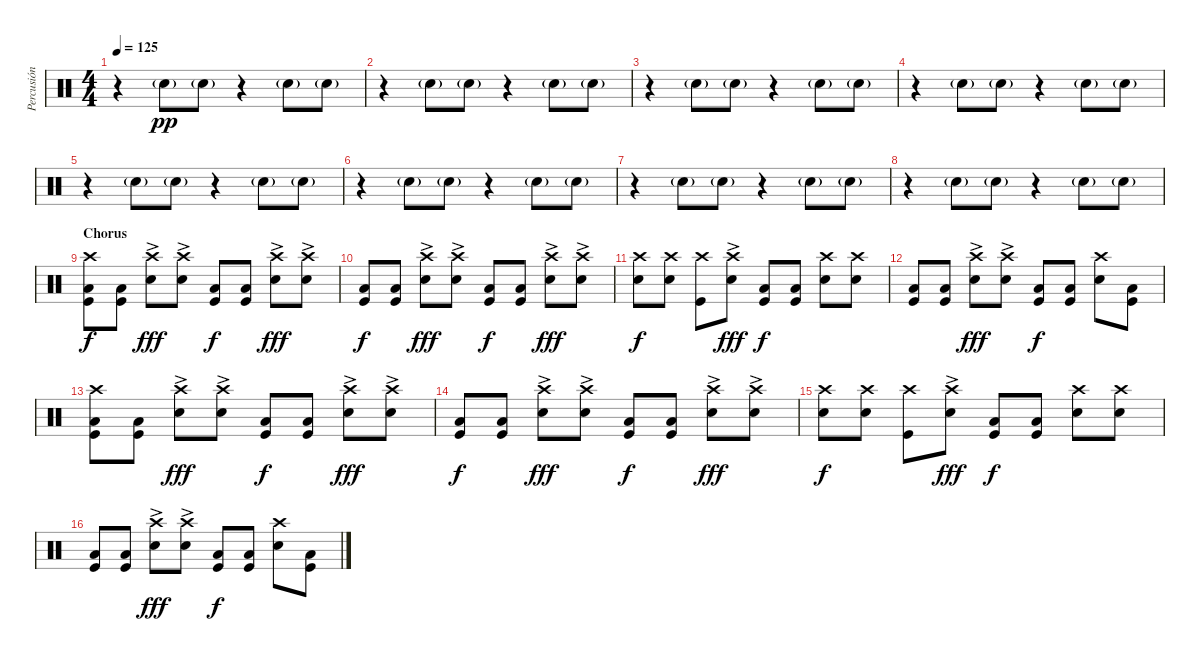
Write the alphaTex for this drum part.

\track ("Percusión" "Percusión") {instrument percussion}
\staff {score}
\articulation defaults
\ts (4 4)
\tempo 125
\clef neutral
\ks c
r.4{dy pp} "Snare (hit) 2"{g}.8 "Snare (hit) 2"{g}.8 r.4 "Snare (hit) 2"{g}.8 "Snare (hit) 2"{g}.8 |
r.4 "Snare (hit) 2"{g}.8 "Snare (hit) 2"{g}.8 r.4 "Snare (hit) 2"{g}.8 "Snare (hit) 2"{g}.8 |
r.4 "Snare (hit) 2"{g}.8 "Snare (hit) 2"{g}.8 r.4 "Snare (hit) 2"{g}.8 "Snare (hit) 2"{g}.8 |
r.4 "Snare (hit) 2"{g}.8 "Snare (hit) 2"{g}.8 r.4 "Snare (hit) 2"{g}.8 "Snare (hit) 2"{g}.8 |
r.4 "Snare (hit) 2"{g}.8 "Snare (hit) 2"{g}.8 r.4 "Snare (hit) 2"{g}.8 "Snare (hit) 2"{g}.8 |
r.4 "Snare (hit) 2"{g}.8 "Snare (hit) 2"{g}.8 r.4 "Snare (hit) 2"{g}.8 "Snare (hit) 2"{g}.8 |
r.4 "Snare (hit) 2"{g}.8 "Snare (hit) 2"{g}.8 r.4 "Snare (hit) 2"{g}.8 "Snare (hit) 2"{g}.8 |
r.4 "Snare (hit) 2"{g}.8 "Snare (hit) 2"{g}.8 r.4 "Snare (hit) 2"{g}.8 "Snare (hit) 2"{g}.8 |
\section ("" "Chorus")
("Crash high (hit)" "Low Tom (hit)" "Kick (hit)").8{dy f} ("Low Tom (hit)" "Kick (hit)").8 ("Crash high (hit)"{ac} "Snare (hit) 2").8{dy fff} ("Crash high (hit)"{ac} "Snare (hit) 2").8 ("Low Tom (hit)" "Kick (hit)").8{dy f} ("Low Tom (hit)" "Kick (hit)").8 ("Crash high (hit)"{ac} "Snare (hit) 2").8{dy fff} ("Crash high (hit)"{ac} "Snare (hit) 2").8 |
("Low Tom (hit)" "Kick (hit)").8{dy f} ("Low Tom (hit)" "Kick (hit)").8 ("Crash high (hit)"{ac} "Snare (hit) 2").8{dy fff} ("Crash high (hit)"{ac} "Snare (hit) 2").8 ("Low Tom (hit)" "Kick (hit)").8{dy f} ("Low Tom (hit)" "Kick (hit)").8 ("Crash high (hit)"{ac} "Snare (hit) 2").8{dy fff} ("Crash high (hit)"{ac} "Snare (hit) 2").8 |
("Crash high (hit)" "Snare (hit) 2").8{dy f} ("Crash high (hit)" "Snare (hit) 2").8 ("Crash high (hit)" "Kick (hit)").8 ("Crash high (hit)"{ac} "Snare (hit) 2").8{dy fff} ("Low Tom (hit)" "Kick (hit)").8{dy f} ("Low Tom (hit)" "Kick (hit)").8 ("Crash high (hit)" "Snare (hit) 2").8 ("Crash high (hit)" "Snare (hit) 2").8 |
("Low Tom (hit)" "Kick (hit)").8 ("Low Tom (hit)" "Kick (hit)").8 ("Crash high (hit)"{ac} "Snare (hit) 2").8{dy fff} ("Crash high (hit)"{ac} "Snare (hit) 2").8 ("Low Tom (hit)" "Kick (hit)").8{dy f} ("Low Tom (hit)" "Kick (hit)").8 ("Crash high (hit)" "Snare (hit) 2").8 ("Low Tom (hit)" "Kick (hit)").8 |
("Crash high (hit)" "Low Tom (hit)" "Kick (hit)").8 ("Low Tom (hit)" "Kick (hit)").8 ("Crash high (hit)"{ac} "Snare (hit) 2").8{dy fff} ("Crash high (hit)"{ac} "Snare (hit) 2").8 ("Low Tom (hit)" "Kick (hit)").8{dy f} ("Low Tom (hit)" "Kick (hit)").8 ("Crash high (hit)"{ac} "Snare (hit) 2").8{dy fff} ("Crash high (hit)"{ac} "Snare (hit) 2").8 |
("Low Tom (hit)" "Kick (hit)").8{dy f} ("Low Tom (hit)" "Kick (hit)").8 ("Crash high (hit)"{ac} "Snare (hit) 2").8{dy fff} ("Crash high (hit)"{ac} "Snare (hit) 2").8 ("Low Tom (hit)" "Kick (hit)").8{dy f} ("Low Tom (hit)" "Kick (hit)").8 ("Crash high (hit)"{ac} "Snare (hit) 2").8{dy fff} ("Crash high (hit)"{ac} "Snare (hit) 2").8 |
("Crash high (hit)" "Snare (hit) 2").8{dy f} ("Crash high (hit)" "Snare (hit) 2").8 ("Crash high (hit)" "Kick (hit)").8 ("Crash high (hit)"{ac} "Snare (hit) 2").8{dy fff} ("Low Tom (hit)" "Kick (hit)").8{dy f} ("Low Tom (hit)" "Kick (hit)").8 ("Crash high (hit)" "Snare (hit) 2").8 ("Crash high (hit)" "Snare (hit) 2").8 |
("Low Tom (hit)" "Kick (hit)").8 ("Low Tom (hit)" "Kick (hit)").8 ("Crash high (hit)"{ac} "Snare (hit) 2").8{dy fff} ("Crash high (hit)"{ac} "Snare (hit) 2").8 ("Low Tom (hit)" "Kick (hit)").8{dy f} ("Low Tom (hit)" "Kick (hit)").8 ("Crash high (hit)" "Snare (hit) 2").8 ("Low Tom (hit)" "Kick (hit)").8
